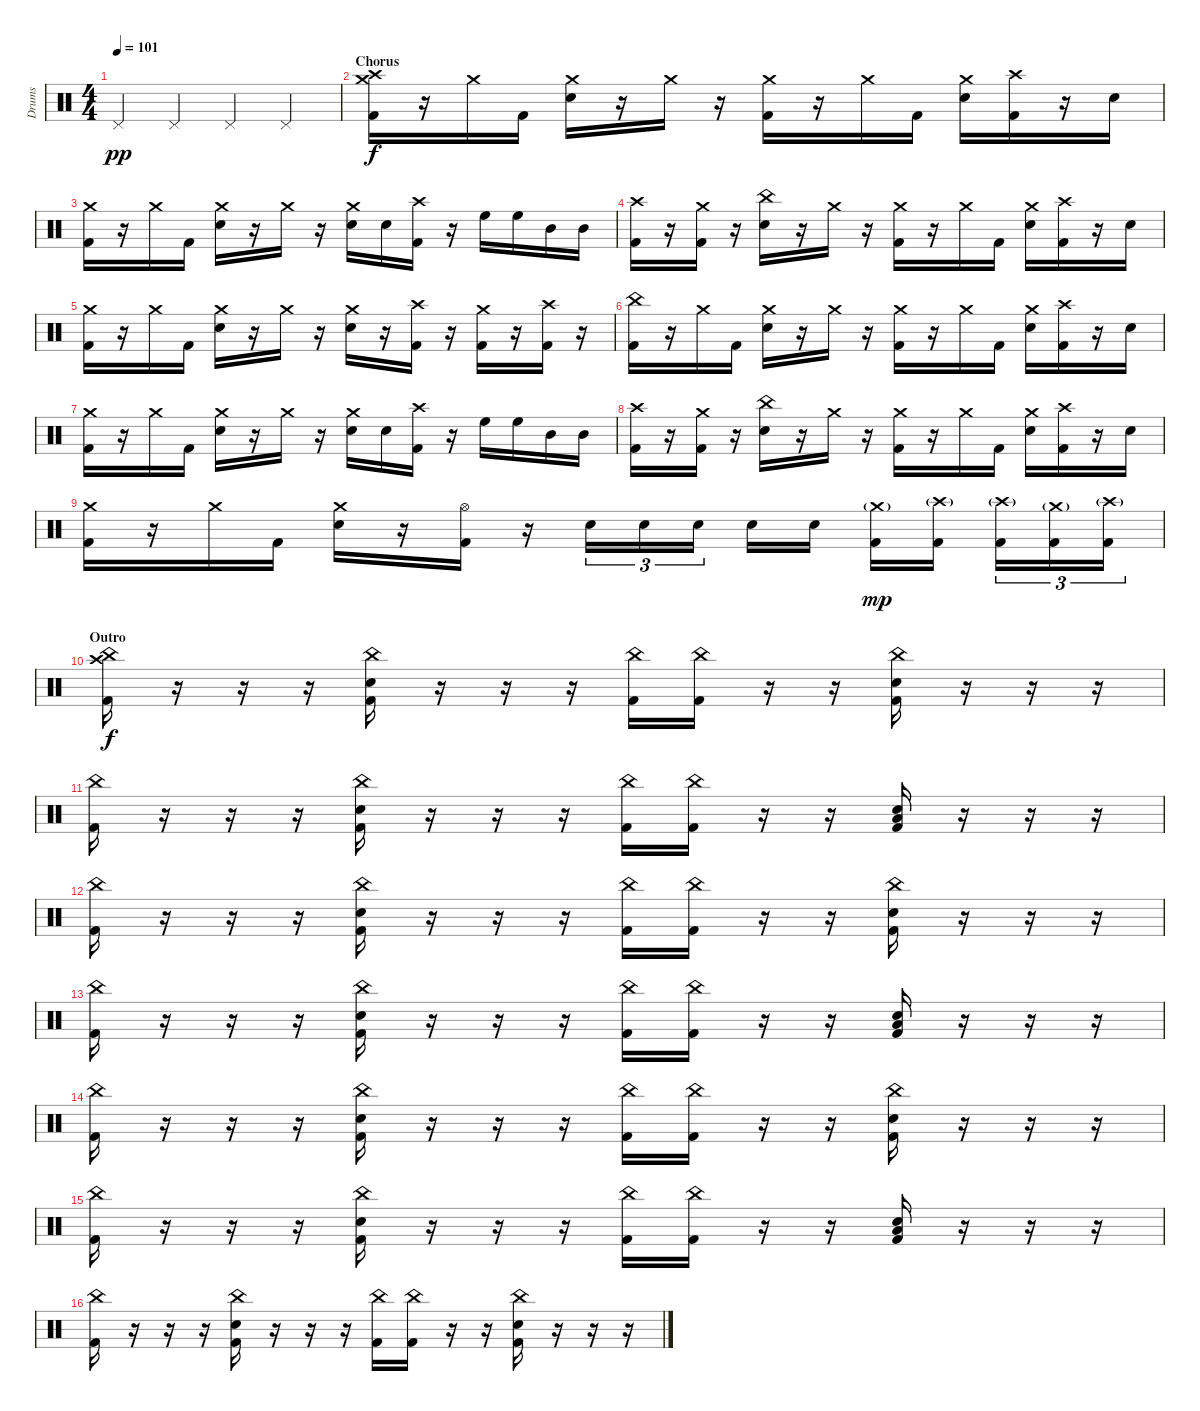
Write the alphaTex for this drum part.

\track ("Drums" "Drums") {instrument percussion}
\staff {score}
\articulation defaults
\ts (4 4)
\tempo 101
\clef neutral
\ks c "Pedal Hi-Hat (hit)".4{dy pp} "Pedal Hi-Hat (hit)".4 "Pedal Hi-Hat (hit)".4 "Pedal Hi-Hat (hit)".4
|
\section ("" "Chorus")
("Crash high (hit)" "Crash medium (hit)" "Kick (hit) 2").16{dy f} r.16 "Crash medium (hit)".16 "Kick (hit) 2".16 ("Crash medium (hit)" "Electric Snare (hit)").16 r.16 "Crash medium (hit)".16 r.16 ("Crash medium (hit)" "Kick (hit) 2").16 r.16 "Crash medium (hit)".16 "Kick (hit) 2".16 ("Crash medium (hit)" "Electric Snare (hit)").16 ("Crash high (hit)" "Kick (hit) 2").16 r.16 "Electric Snare (hit)".16 |
("Crash medium (hit)" "Kick (hit) 2").16 r.16 "Crash medium (hit)".16 "Kick (hit) 2".16 ("Crash medium (hit)" "Electric Snare (hit)").16 r.16 "Crash medium (hit)".16 r.16 ("Crash medium (hit)" "Electric Snare (hit)").16 "Electric Snare (hit)".16 ("Crash high (hit)" "Kick (hit) 2").16 r.16 "High Floor Tom (hit)".16 "High Floor Tom (hit)".16 "Mid Tom (hit)".16 "Mid Tom (hit)".16 |
("Crash high (hit)" "Kick (hit) 2").16 r.16 ("Crash medium (hit)" "Kick (hit) 2").16 r.16 ("China (hit)" "Electric Snare (hit)").16 r.16 "Crash medium (hit)".16 r.16 ("Crash medium (hit)" "Kick (hit) 2").16 r.16 "Crash medium (hit)".16 "Kick (hit) 2".16 ("Crash medium (hit)" "Electric Snare (hit)").16 ("Crash high (hit)" "Kick (hit) 2").16 r.16 "Electric Snare (hit)".16 |
("Crash medium (hit)" "Kick (hit) 2").16 r.16 "Crash medium (hit)".16 "Kick (hit) 2".16 ("Crash medium (hit)" "Electric Snare (hit)").16 r.16 "Crash medium (hit)".16 r.16 ("Crash medium (hit)" "Electric Snare (hit)").16 r.16 ("Crash high (hit)" "Kick (hit) 2").16 r.16 ("Crash medium (hit)" "Kick (hit) 2").16 r.16 ("Crash high (hit)" "Kick (hit) 2").16 r.16 |
("China (hit)" "Kick (hit) 2").16 r.16 "Crash medium (hit)".16 "Kick (hit) 2".16 ("Crash medium (hit)" "Electric Snare (hit)").16 r.16 "Crash medium (hit)".16 r.16 ("Crash medium (hit)" "Kick (hit) 2").16 r.16 "Crash medium (hit)".16 "Kick (hit) 2".16 ("Crash medium (hit)" "Electric Snare (hit)").16 ("Crash high (hit)" "Kick (hit) 2").16 r.16 "Electric Snare (hit)".16 |
("Crash medium (hit)" "Kick (hit) 2").16 r.16 "Crash medium (hit)".16 "Kick (hit) 2".16 ("Crash medium (hit)" "Electric Snare (hit)").16 r.16 "Crash medium (hit)".16 r.16 ("Crash medium (hit)" "Electric Snare (hit)").16 "Electric Snare (hit)".16 ("Crash high (hit)" "Kick (hit) 2").16 r.16 "High Floor Tom (hit)".16 "High Floor Tom (hit)".16 "Mid Tom (hit)".16 "Mid Tom (hit)".16 |
("Crash high (hit)" "Kick (hit) 2").16 r.16 ("Crash medium (hit)" "Kick (hit) 2").16 r.16 ("China (hit)" "Electric Snare (hit)").16 r.16 "Crash medium (hit)".16 r.16 ("Crash medium (hit)" "Kick (hit) 2").16 r.16 "Crash medium (hit)".16 "Kick (hit) 2".16 ("Crash medium (hit)" "Electric Snare (hit)").16 ("Crash high (hit)" "Kick (hit) 2").16 r.16 "Electric Snare (hit)".16 |
("Crash medium (hit)" "Kick (hit) 2").16 r.16 "Crash medium (hit)".16 "Kick (hit) 2".16 ("Crash medium (hit)" "Electric Snare (hit)").16 r.16 ("Hi-Hat (open)" "Kick (hit) 2").16 r.16 "Electric Snare (hit)".16{tu (3 2)} "Electric Snare (hit)".16{tu (3 2)} "Electric Snare (hit)".16{tu (3 2)} "Electric Snare (hit)".16 "Electric Snare (hit)".16 ("Crash medium (hit)"{g} "Kick (hit) 2").16{dy mp} ("Crash high (hit)"{g} "Kick (hit) 2").16 ("Crash high (hit)"{g} "Kick (hit) 2").16{tu (3 2)} ("Crash medium (hit)"{g} "Kick (hit) 2").16{tu (3 2)} ("Crash high (hit)"{g} "Kick (hit) 2").16{tu (3 2)} |
\section ("" "Outro")
("China (hit)" "Crash high (hit)" "Kick (hit) 2").16{dy f} r.16 r.16 r.16 ("China (hit)" "Electric Snare (hit)" "Kick (hit) 2").16 r.16 r.16 r.16 ("China (hit)" "Kick (hit) 2").16 ("China (hit)" "Kick (hit) 2").16 r.16 r.16 ("China (hit)" "Electric Snare (hit)" "Kick (hit) 2").16 r.16 r.16 r.16 |
("China (hit)" "Kick (hit) 2").16 r.16 r.16 r.16 ("China (hit)" "Electric Snare (hit)" "Kick (hit) 2").16 r.16 r.16 r.16 ("China (hit)" "Kick (hit) 2").16 ("China (hit)" "Kick (hit) 2").16 r.16 r.16 ("Electric Snare (hit)" "Low Floor Tom (hit)" "Kick (hit) 2").16 r.16 r.16 r.16 |
("China (hit)" "Kick (hit) 2").16 r.16 r.16 r.16 ("China (hit)" "Electric Snare (hit)" "Kick (hit) 2").16 r.16 r.16 r.16 ("China (hit)" "Kick (hit) 2").16 ("China (hit)" "Kick (hit) 2").16 r.16 r.16 ("China (hit)" "Electric Snare (hit)" "Kick (hit) 2").16 r.16 r.16 r.16 |
("China (hit)" "Kick (hit) 2").16 r.16 r.16 r.16 ("China (hit)" "Electric Snare (hit)" "Kick (hit) 2").16 r.16 r.16 r.16 ("China (hit)" "Kick (hit) 2").16 ("China (hit)" "Kick (hit) 2").16 r.16 r.16 ("Electric Snare (hit)" "Low Floor Tom (hit)" "Kick (hit) 2").16 r.16 r.16 r.16 |
("China (hit)" "Kick (hit) 2").16 r.16 r.16 r.16 ("China (hit)" "Electric Snare (hit)" "Kick (hit) 2").16 r.16 r.16 r.16 ("China (hit)" "Kick (hit) 2").16 ("China (hit)" "Kick (hit) 2").16 r.16 r.16 ("China (hit)" "Electric Snare (hit)" "Kick (hit) 2").16 r.16 r.16 r.16 |
("China (hit)" "Kick (hit) 2").16 r.16 r.16 r.16 ("China (hit)" "Electric Snare (hit)" "Kick (hit) 2").16 r.16 r.16 r.16 ("China (hit)" "Kick (hit) 2").16 ("China (hit)" "Kick (hit) 2").16 r.16 r.16 ("Electric Snare (hit)" "Low Floor Tom (hit)" "Kick (hit) 2").16 r.16 r.16 r.16 |
("China (hit)" "Kick (hit) 2").16 r.16 r.16 r.16 ("China (hit)" "Electric Snare (hit)" "Kick (hit) 2").16 r.16 r.16 r.16 ("China (hit)" "Kick (hit) 2").16 ("China (hit)" "Kick (hit) 2").16 r.16 r.16 ("China (hit)" "Electric Snare (hit)" "Kick (hit) 2").16 r.16 r.16 r.16
